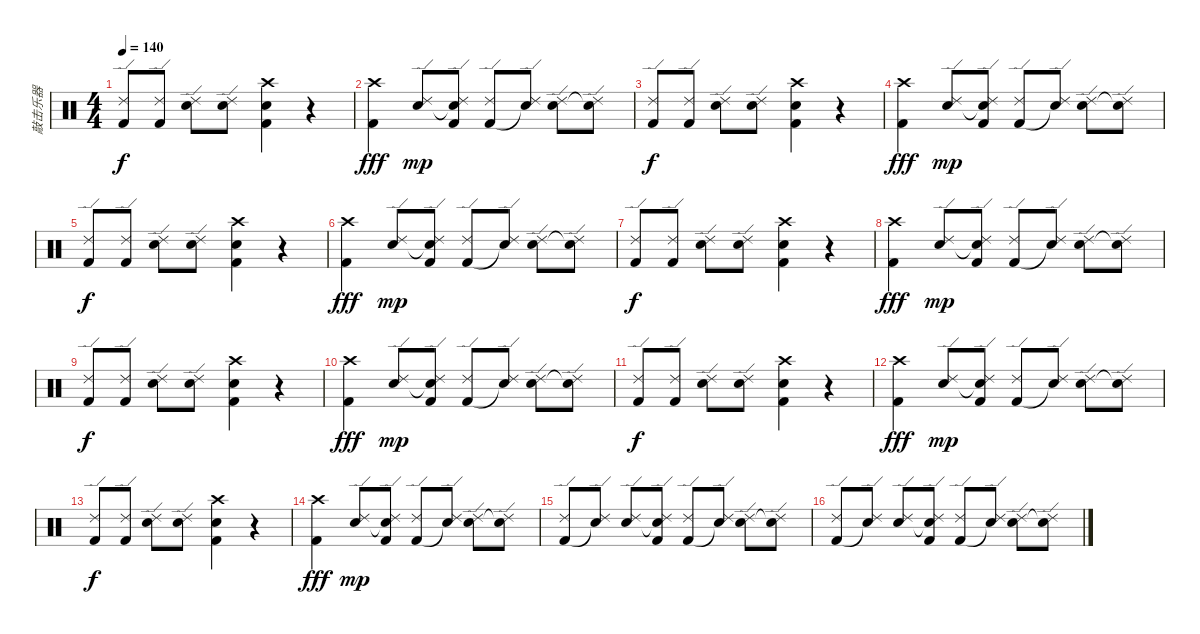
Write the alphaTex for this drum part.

\track ("敲击乐器" "敲击乐器") {instrument percussion}
\staff {score}
\articulation defaults
\ts (4 4)
\tempo 140
\clef neutral
\ks c
("Kick (hit) 2" "Ride (edge) 2").8{dy f} ("Kick (hit) 2" "Ride (edge) 2").8 ("Snare (hit) 2" "Ride (edge) 2").8 ("Snare (hit) 2" "Ride (edge) 2").8 ("Crash high (hit)" "Snare (hit) 2" "Kick (hit) 2").4 r.4 |
("Kick (hit) 2" "Crash high (hit)").4{dy fff} ("Electric Snare (hit)" "Ride (edge) 2").8{dy mp} ("Snare (hit)"{t} "Kick (hit) 2" "Ride (edge) 2").8 ("Kick (hit) 2" "Ride (edge) 2").8 ("Snare (hit)"{t} "Ride (edge) 2").8 ("Electric Snare (hit)" "Ride (edge) 2").8 ("Snare (hit)"{t} "Ride (edge) 2").8 |
("Kick (hit) 2" "Ride (edge) 2").8{dy f} ("Kick (hit) 2" "Ride (edge) 2").8 ("Snare (hit) 2" "Ride (edge) 2").8 ("Snare (hit) 2" "Ride (edge) 2").8 ("Crash high (hit)" "Snare (hit) 2" "Kick (hit) 2").4 r.4 |
("Kick (hit) 2" "Crash high (hit)").4{dy fff} ("Electric Snare (hit)" "Ride (edge) 2").8{dy mp} ("Snare (hit)"{t} "Kick (hit) 2" "Ride (edge) 2").8 ("Kick (hit) 2" "Ride (edge) 2").8 ("Snare (hit)"{t} "Ride (edge) 2").8 ("Electric Snare (hit)" "Ride (edge) 2").8 ("Snare (hit)"{t} "Ride (edge) 2").8 |
("Kick (hit) 2" "Ride (edge) 2").8{dy f} ("Kick (hit) 2" "Ride (edge) 2").8 ("Snare (hit) 2" "Ride (edge) 2").8 ("Snare (hit) 2" "Ride (edge) 2").8 ("Crash high (hit)" "Snare (hit) 2" "Kick (hit) 2").4 r.4 |
("Kick (hit) 2" "Crash high (hit)").4{dy fff} ("Electric Snare (hit)" "Ride (edge) 2").8{dy mp} ("Snare (hit)"{t} "Kick (hit) 2" "Ride (edge) 2").8 ("Kick (hit) 2" "Ride (edge) 2").8 ("Snare (hit)"{t} "Ride (edge) 2").8 ("Electric Snare (hit)" "Ride (edge) 2").8 ("Snare (hit)"{t} "Ride (edge) 2").8 |
("Kick (hit) 2" "Ride (edge) 2").8{dy f} ("Kick (hit) 2" "Ride (edge) 2").8 ("Snare (hit) 2" "Ride (edge) 2").8 ("Snare (hit) 2" "Ride (edge) 2").8 ("Crash high (hit)" "Snare (hit) 2" "Kick (hit) 2").4 r.4 |
("Kick (hit) 2" "Crash high (hit)").4{dy fff} ("Electric Snare (hit)" "Ride (edge) 2").8{dy mp} ("Snare (hit)"{t} "Kick (hit) 2" "Ride (edge) 2").8 ("Kick (hit) 2" "Ride (edge) 2").8 ("Snare (hit)"{t} "Ride (edge) 2").8 ("Electric Snare (hit)" "Ride (edge) 2").8 ("Snare (hit)"{t} "Ride (edge) 2").8 |
("Kick (hit) 2" "Ride (edge) 2").8{dy f} ("Kick (hit) 2" "Ride (edge) 2").8 ("Snare (hit) 2" "Ride (edge) 2").8 ("Snare (hit) 2" "Ride (edge) 2").8 ("Crash high (hit)" "Snare (hit) 2" "Kick (hit) 2").4 r.4 |
("Kick (hit) 2" "Crash high (hit)").4{dy fff} ("Electric Snare (hit)" "Ride (edge) 2").8{dy mp} ("Snare (hit)"{t} "Kick (hit) 2" "Ride (edge) 2").8 ("Kick (hit) 2" "Ride (edge) 2").8 ("Snare (hit)"{t} "Ride (edge) 2").8 ("Electric Snare (hit)" "Ride (edge) 2").8 ("Snare (hit)"{t} "Ride (edge) 2").8 |
("Kick (hit) 2" "Ride (edge) 2").8{dy f} ("Kick (hit) 2" "Ride (edge) 2").8 ("Snare (hit) 2" "Ride (edge) 2").8 ("Snare (hit) 2" "Ride (edge) 2").8 ("Crash high (hit)" "Snare (hit) 2" "Kick (hit) 2").4 r.4 |
("Kick (hit) 2" "Crash high (hit)").4{dy fff} ("Electric Snare (hit)" "Ride (edge) 2").8{dy mp} ("Snare (hit)"{t} "Kick (hit) 2" "Ride (edge) 2").8 ("Kick (hit) 2" "Ride (edge) 2").8 ("Snare (hit)"{t} "Ride (edge) 2").8 ("Electric Snare (hit)" "Ride (edge) 2").8 ("Snare (hit)"{t} "Ride (edge) 2").8 |
("Kick (hit) 2" "Ride (edge) 2").8{dy f} ("Kick (hit) 2" "Ride (edge) 2").8 ("Snare (hit) 2" "Ride (edge) 2").8 ("Snare (hit) 2" "Ride (edge) 2").8 ("Crash high (hit)" "Snare (hit) 2" "Kick (hit) 2").4 r.4 |
("Kick (hit) 2" "Crash high (hit)").4{dy fff} ("Electric Snare (hit)" "Ride (edge) 2").8{dy mp} ("Snare (hit)"{t} "Kick (hit) 2" "Ride (edge) 2").8 ("Kick (hit) 2" "Ride (edge) 2").8 ("Snare (hit)"{t} "Ride (edge) 2").8 ("Electric Snare (hit)" "Ride (edge) 2").8 ("Snare (hit)"{t} "Ride (edge) 2").8 |
("Kick (hit) 2" "Ride (edge) 2").8 ("Snare (hit)"{t} "Ride (edge) 2").8 ("Electric Snare (hit)" "Ride (edge) 2").8 ("Snare (hit)"{t} "Kick (hit) 2" "Ride (edge) 2").8 ("Kick (hit) 2" "Ride (edge) 2").8 ("Snare (hit)"{t} "Ride (edge) 2").8 ("Electric Snare (hit)" "Ride (edge) 2").8 ("Snare (hit)"{t} "Ride (edge) 2").8 |
("Kick (hit) 2" "Ride (edge) 2").8 ("Snare (hit)"{t} "Ride (edge) 2").8 ("Electric Snare (hit)" "Ride (edge) 2").8 ("Snare (hit)"{t} "Kick (hit) 2" "Ride (edge) 2").8 ("Kick (hit) 2" "Ride (edge) 2").8 ("Snare (hit)"{t} "Ride (edge) 2").8 ("Electric Snare (hit)" "Ride (edge) 2").8 ("Snare (hit)"{t} "Ride (edge) 2").8
